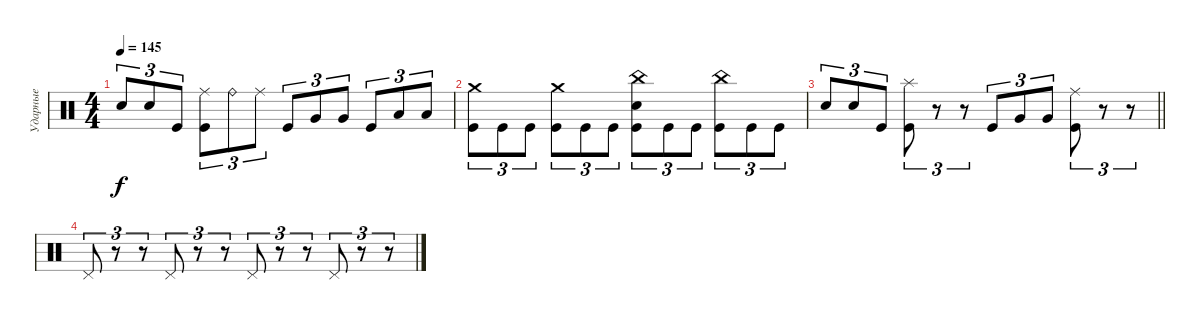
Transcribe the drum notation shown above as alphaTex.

\track ("Ударные" "Ударные") {instrument percussion}
\staff {score}
\articulation defaults
\ts (4 4)
\tempo 145
\clef neutral
\ks c "Electric Snare (hit)".8{tu (3 2) dy f} "Electric Snare (hit)".8{tu (3 2)} "Kick (hit)".8{tu (3 2)}
("Ride (middle)" "Kick (hit)").8{tu (3 2)} "Ride (bell)".8{tu (3 2)} "Ride (middle)".8{tu (3 2)} "Kick (hit)".8{tu (3 2)} "Very Low Tom (hit)".8{tu (3 2)} "Very Low Tom (hit)".8{tu (3 2)} "Kick (hit)".8{tu (3 2)} "Low Tom (hit)".8{tu (3 2)} "Low Tom (hit)".8{tu (3 2)} |
("Crash medium (hit)" "Kick (hit)").8{tu (3 2)} "Kick (hit)".8{tu (3 2)} "Kick (hit)".8{tu (3 2)} ("Crash medium (hit)" "Kick (hit)").8{tu (3 2)} "Kick (hit)".8{tu (3 2)} "Kick (hit)".8{tu (3 2)} ("China (hit)" "Electric Snare (hit)" "Kick (hit)").8{tu (3 2)} "Kick (hit)".8{tu (3 2)} "Kick (hit)".8{tu (3 2)} ("China (hit)" "Kick (hit)").8{tu (3 2)} "Kick (hit)".8{tu (3 2)} "Kick (hit)".8{tu (3 2)} |
\barLineRight lightlight "Electric Snare (hit)".8{tu (3 2)} "Electric Snare (hit)".8{tu (3 2)} "Kick (hit)".8{tu (3 2)}
("Splash (hit)" "Kick (hit)").8{tu (3 2)} r.8{tu (3 2)} r.8{tu (3 2)} "Kick (hit)".8{tu (3 2)} "Very Low Tom (hit)".8{tu (3 2)} "Very Low Tom (hit)".8{tu (3 2)} ("Ride (middle)" "Kick (hit)").8{tu (3 2)} r.8{tu (3 2)} r.8{tu (3 2)} |
\section ("" " ")
"Pedal Hi-Hat (hit)".8{tu (3 2)} r.8{tu (3 2)} r.8{tu (3 2)} "Pedal Hi-Hat (hit)".8{tu (3 2)} r.8{tu (3 2)} r.8{tu (3 2)} "Pedal Hi-Hat (hit)".8{tu (3 2)} r.8{tu (3 2)} r.8{tu (3 2)} "Pedal Hi-Hat (hit)".8{tu (3 2)} r.8{tu (3 2)} r.8{tu (3 2)}
